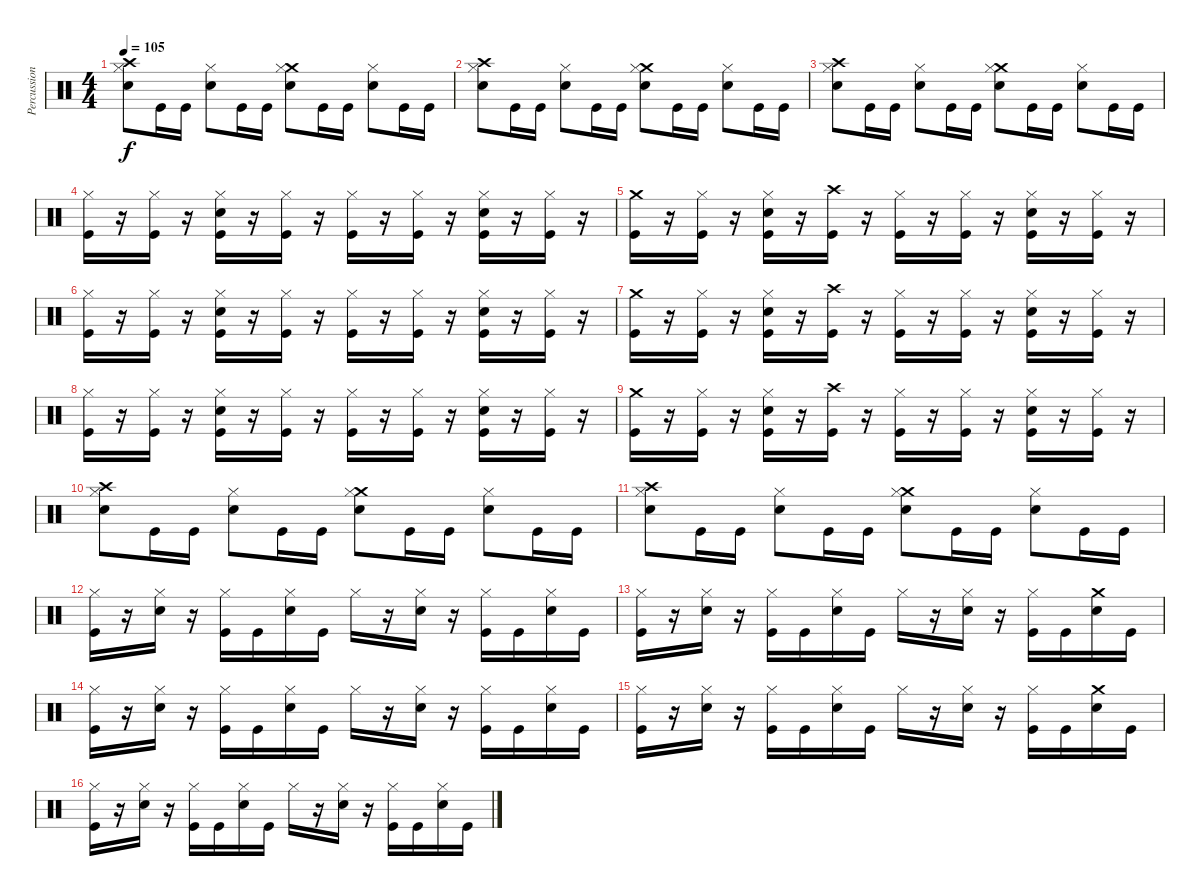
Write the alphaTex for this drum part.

\track ("Percussion" "Percussion") {instrument percussion}
\staff {score}
\articulation defaults
\ts (4 4)
\tempo 105
\clef neutral
\ks c
("Crash high (hit)" "Hi-Hat (closed)" "Snare (hit) 2").8{dy f} "Kick (hit)".16 "Kick (hit)".16 ("Hi-Hat (closed)" "Snare (hit) 2").8 "Kick (hit)".16 "Kick (hit)".16 ("Crash medium (hit)" "Hi-Hat (closed)" "Snare (hit) 2").8 "Kick (hit)".16 "Kick (hit)".16 ("Hi-Hat (closed)" "Snare (hit) 2").8 "Kick (hit)".16 "Kick (hit)".16 |
("Crash high (hit)" "Hi-Hat (closed)" "Snare (hit) 2").8 "Kick (hit)".16 "Kick (hit)".16 ("Hi-Hat (closed)" "Snare (hit) 2").8 "Kick (hit)".16 "Kick (hit)".16 ("Crash medium (hit)" "Hi-Hat (closed)" "Snare (hit) 2").8 "Kick (hit)".16 "Kick (hit)".16 ("Hi-Hat (closed)" "Snare (hit) 2").8 "Kick (hit)".16 "Kick (hit)".16 |
("Crash high (hit)" "Hi-Hat (closed)" "Snare (hit) 2").8 "Kick (hit)".16 "Kick (hit)".16 ("Hi-Hat (closed)" "Snare (hit) 2").8 "Kick (hit)".16 "Kick (hit)".16 ("Crash medium (hit)" "Hi-Hat (closed)" "Snare (hit) 2").8 "Kick (hit)".16 "Kick (hit)".16 ("Hi-Hat (closed)" "Snare (hit) 2").8 "Kick (hit)".16 "Kick (hit)".16 |
("Hi-Hat (closed)" "Kick (hit)").16 r.16 ("Hi-Hat (closed)" "Kick (hit)").16 r.16 ("Hi-Hat (closed)" "Snare (hit) 2" "Kick (hit)").16 r.16 ("Hi-Hat (closed)" "Kick (hit)").16 r.16 ("Hi-Hat (closed)" "Kick (hit)").16 r.16 ("Hi-Hat (closed)" "Kick (hit)").16 r.16 ("Hi-Hat (closed)" "Snare (hit) 2" "Kick (hit)").16 r.16 ("Hi-Hat (closed)" "Kick (hit)").16 r.16 |
("Crash medium (hit)" "Kick (hit)").16 r.16 ("Hi-Hat (closed)" "Kick (hit)").16 r.16 ("Hi-Hat (closed)" "Snare (hit) 2" "Kick (hit)").16 r.16 ("Crash high (hit)" "Kick (hit)").16 r.16 ("Hi-Hat (closed)" "Kick (hit)").16 r.16 ("Hi-Hat (closed)" "Kick (hit)").16 r.16 ("Hi-Hat (closed)" "Snare (hit) 2" "Kick (hit)").16 r.16 ("Hi-Hat (closed)" "Kick (hit)").16 r.16 |
("Hi-Hat (closed)" "Kick (hit)").16 r.16 ("Hi-Hat (closed)" "Kick (hit)").16 r.16 ("Hi-Hat (closed)" "Snare (hit) 2" "Kick (hit)").16 r.16 ("Hi-Hat (closed)" "Kick (hit)").16 r.16 ("Hi-Hat (closed)" "Kick (hit)").16 r.16 ("Hi-Hat (closed)" "Kick (hit)").16 r.16 ("Hi-Hat (closed)" "Snare (hit) 2" "Kick (hit)").16 r.16 ("Hi-Hat (closed)" "Kick (hit)").16 r.16 |
("Crash medium (hit)" "Kick (hit)").16 r.16 ("Hi-Hat (closed)" "Kick (hit)").16 r.16 ("Hi-Hat (closed)" "Snare (hit) 2" "Kick (hit)").16 r.16 ("Crash high (hit)" "Kick (hit)").16 r.16 ("Hi-Hat (closed)" "Kick (hit)").16 r.16 ("Hi-Hat (closed)" "Kick (hit)").16 r.16 ("Hi-Hat (closed)" "Snare (hit) 2" "Kick (hit)").16 r.16 ("Hi-Hat (closed)" "Kick (hit)").16 r.16 |
("Hi-Hat (closed)" "Kick (hit)").16 r.16 ("Hi-Hat (closed)" "Kick (hit)").16 r.16 ("Hi-Hat (closed)" "Snare (hit) 2" "Kick (hit)").16 r.16 ("Hi-Hat (closed)" "Kick (hit)").16 r.16 ("Hi-Hat (closed)" "Kick (hit)").16 r.16 ("Hi-Hat (closed)" "Kick (hit)").16 r.16 ("Hi-Hat (closed)" "Snare (hit) 2" "Kick (hit)").16 r.16 ("Hi-Hat (closed)" "Kick (hit)").16 r.16 |
("Crash medium (hit)" "Kick (hit)").16 r.16 ("Hi-Hat (closed)" "Kick (hit)").16 r.16 ("Hi-Hat (closed)" "Snare (hit) 2" "Kick (hit)").16 r.16 ("Crash high (hit)" "Kick (hit)").16 r.16 ("Hi-Hat (closed)" "Kick (hit)").16 r.16 ("Hi-Hat (closed)" "Kick (hit)").16 r.16 ("Hi-Hat (closed)" "Snare (hit) 2" "Kick (hit)").16 r.16 ("Hi-Hat (closed)" "Kick (hit)").16 r.16 |
("Crash high (hit)" "Hi-Hat (closed)" "Snare (hit) 2").8 "Kick (hit)".16 "Kick (hit)".16 ("Hi-Hat (closed)" "Snare (hit) 2").8 "Kick (hit)".16 "Kick (hit)".16 ("Crash medium (hit)" "Hi-Hat (closed)" "Snare (hit) 2").8 "Kick (hit)".16 "Kick (hit)".16 ("Hi-Hat (closed)" "Snare (hit) 2").8 "Kick (hit)".16 "Kick (hit)".16 |
("Crash high (hit)" "Hi-Hat (closed)" "Snare (hit) 2").8 "Kick (hit)".16 "Kick (hit)".16 ("Hi-Hat (closed)" "Snare (hit) 2").8 "Kick (hit)".16 "Kick (hit)".16 ("Crash medium (hit)" "Hi-Hat (closed)" "Snare (hit) 2").8 "Kick (hit)".16 "Kick (hit)".16 ("Hi-Hat (closed)" "Snare (hit) 2").8 "Kick (hit)".16 "Kick (hit)".16 |
("Hi-Hat (closed)" "Kick (hit)").16 r.16 ("Hi-Hat (closed)" "Snare (hit) 2").16 r.16 ("Hi-Hat (closed)" "Kick (hit)").16 "Kick (hit)".16 ("Hi-Hat (closed)" "Snare (hit) 2").16 "Kick (hit)".16 "Hi-Hat (closed)".16 r.16 ("Hi-Hat (closed)" "Snare (hit) 2").16 r.16 ("Hi-Hat (closed)" "Kick (hit)").16 "Kick (hit)".16 ("Hi-Hat (closed)" "Snare (hit) 2").16 "Kick (hit)".16 |
("Hi-Hat (closed)" "Kick (hit)").16 r.16 ("Hi-Hat (closed)" "Snare (hit) 2").16 r.16 ("Hi-Hat (closed)" "Kick (hit)").16 "Kick (hit)".16 ("Hi-Hat (closed)" "Snare (hit) 2").16 "Kick (hit)".16 "Hi-Hat (closed)".16 r.16 ("Hi-Hat (closed)" "Snare (hit) 2").16 r.16 ("Hi-Hat (closed)" "Kick (hit)").16 "Kick (hit)".16 ("Crash medium (hit)" "Snare (hit) 2").16 "Kick (hit)".16 |
("Hi-Hat (closed)" "Kick (hit)").16 r.16 ("Hi-Hat (closed)" "Snare (hit) 2").16 r.16 ("Hi-Hat (closed)" "Kick (hit)").16 "Kick (hit)".16 ("Hi-Hat (closed)" "Snare (hit) 2").16 "Kick (hit)".16 "Hi-Hat (closed)".16 r.16 ("Hi-Hat (closed)" "Snare (hit) 2").16 r.16 ("Hi-Hat (closed)" "Kick (hit)").16 "Kick (hit)".16 ("Hi-Hat (closed)" "Snare (hit) 2").16 "Kick (hit)".16 |
("Hi-Hat (closed)" "Kick (hit)").16 r.16 ("Hi-Hat (closed)" "Snare (hit) 2").16 r.16 ("Hi-Hat (closed)" "Kick (hit)").16 "Kick (hit)".16 ("Hi-Hat (closed)" "Snare (hit) 2").16 "Kick (hit)".16 "Hi-Hat (closed)".16 r.16 ("Hi-Hat (closed)" "Snare (hit) 2").16 r.16 ("Hi-Hat (closed)" "Kick (hit)").16 "Kick (hit)".16 ("Crash medium (hit)" "Snare (hit) 2").16 "Kick (hit)".16 |
("Hi-Hat (closed)" "Kick (hit)").16 r.16 ("Hi-Hat (closed)" "Snare (hit) 2").16 r.16 ("Hi-Hat (closed)" "Kick (hit)").16 "Kick (hit)".16 ("Hi-Hat (closed)" "Snare (hit) 2").16 "Kick (hit)".16 "Hi-Hat (closed)".16 r.16 ("Hi-Hat (closed)" "Snare (hit) 2").16 r.16 ("Hi-Hat (closed)" "Kick (hit)").16 "Kick (hit)".16 ("Hi-Hat (closed)" "Snare (hit) 2").16 "Kick (hit)".16
